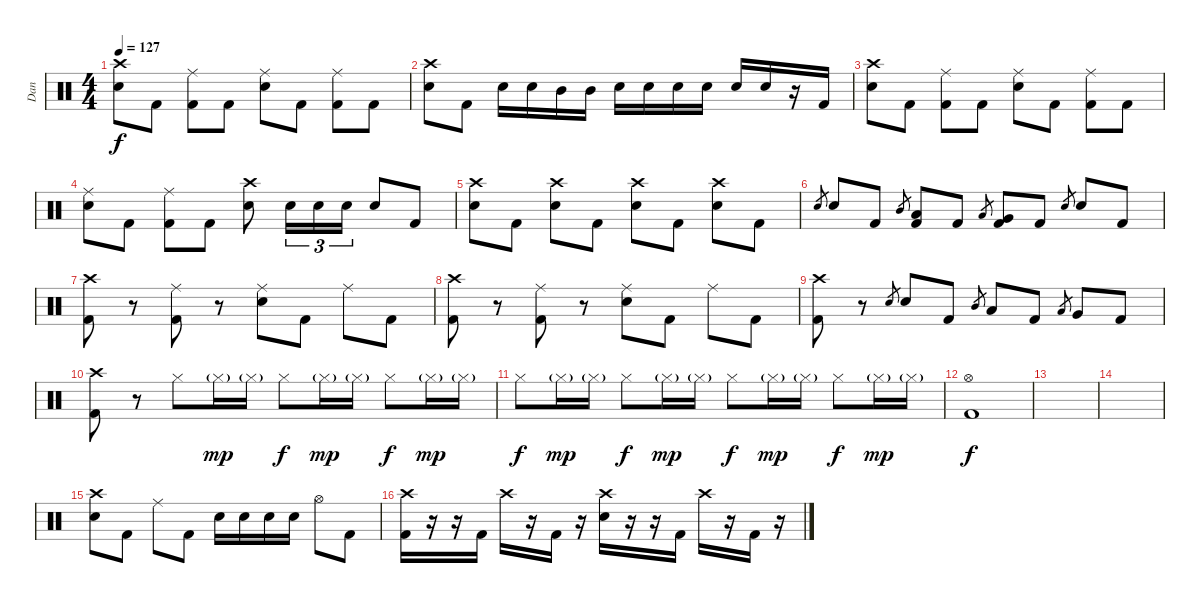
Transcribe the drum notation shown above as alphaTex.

\track ("Dan" "Dan") {instrument percussion}
\staff {score}
\articulation defaults
\ts (4 4)
\tempo 127
\clef neutral
\ks c
("Crash high (hit)" "Electric Snare (hit)").8{dy f} "Kick (hit) 2".8 ("Ride (middle)" "Kick (hit) 2").8 "Kick (hit) 2".8 ("Ride (middle)" "Electric Snare (hit)").8 "Kick (hit) 2".8 ("Ride (middle)" "Kick (hit) 2").8 "Kick (hit) 2".8 |
("Crash high (hit)" "Electric Snare (hit)").8 "Kick (hit) 2".8 "Electric Snare (hit)".16 "Electric Snare (hit)".16 "Mid Tom (hit)".16 "Mid Tom (hit)".16 "Electric Snare (hit)".16 "Electric Snare (hit)".16 "Electric Snare (hit)".16 "Electric Snare (hit)".16 "Electric Snare (hit)".16 "Electric Snare (hit)".16 r.16 "Kick (hit) 2".16 |
("Crash high (hit)" "Electric Snare (hit)").8 "Kick (hit) 2".8 ("Ride (middle)" "Kick (hit) 2").8 "Kick (hit) 2".8 ("Ride (middle)" "Electric Snare (hit)").8 "Kick (hit) 2".8 ("Ride (middle)" "Kick (hit) 2").8 "Kick (hit) 2".8 |
("Ride (middle)" "Electric Snare (hit)").8 "Kick (hit) 2".8 ("Ride (middle)" "Kick (hit) 2").8 "Kick (hit) 2".8 ("Crash high (hit)" "Electric Snare (hit)").8 "Electric Snare (hit)".16{tu (3 2)} "Electric Snare (hit)".16{tu (3 2)} "Electric Snare (hit)".16{tu (3 2)} "Electric Snare (hit)".8 "Kick (hit) 2".8 |
("Crash high (hit)" "Electric Snare (hit)").8 "Kick (hit) 2".8 ("Crash high (hit)" "Electric Snare (hit)").8 "Kick (hit) 2".8 ("Crash high (hit)" "Electric Snare (hit)").8 "Kick (hit) 2".8 ("Crash high (hit)" "Electric Snare (hit)").8 "Kick (hit) 2".8 |
"Electric Snare (hit)".8{gr} "Electric Snare (hit)".8 "Kick (hit) 2".8 "Mid Tom (hit)".8{gr} ("Low Tom (hit)" "Kick (hit) 2").8 "Kick (hit) 2".8 "Low Tom (hit)".8{gr} ("Very Low Tom (hit)" "Kick (hit) 2").8 "Kick (hit) 2".8 "Electric Snare (hit)".8{gr} "Electric Snare (hit)".8 "Kick (hit) 2".8 |
("Crash high (hit)" "Kick (hit) 2").8 r.8 ("Ride (middle)" "Kick (hit) 2").8 r.8 ("Ride (middle)" "Electric Snare (hit)").8 "Kick (hit) 2".8 "Ride (middle)".8 "Kick (hit) 2".8 |
("Crash high (hit)" "Kick (hit) 2").8 r.8 ("Ride (middle)" "Kick (hit) 2").8 r.8 ("Ride (middle)" "Electric Snare (hit)").8 "Kick (hit) 2".8 "Ride (middle)".8 "Kick (hit) 2".8 |
("Crash high (hit)" "Kick (hit) 2").8 r.8 "Electric Snare (hit)".8{gr} "Electric Snare (hit)".8 "Kick (hit) 2".8 "Mid Tom (hit)".8{gr} "Low Tom (hit)".8 "Kick (hit) 2".8 "Low Tom (hit)".8{gr} "Very Low Tom (hit)".8 "Kick (hit) 2".8 |
("Crash high (hit)" "Kick (hit) 2").8 r.8 "Hi-Hat (closed)".8 "Hi-Hat (closed)"{g}.16{dy mp} "Hi-Hat (closed)"{g}.16 "Hi-Hat (closed)".8{dy f} "Hi-Hat (closed)"{g}.16{dy mp} "Hi-Hat (closed)"{g}.16 "Hi-Hat (closed)".8{dy f} "Hi-Hat (closed)"{g}.16{dy mp} "Hi-Hat (closed)"{g}.16 |
"Hi-Hat (closed)".8{dy f} "Hi-Hat (closed)"{g}.16{dy mp} "Hi-Hat (closed)"{g}.16 "Hi-Hat (closed)".8{dy f} "Hi-Hat (closed)"{g}.16{dy mp} "Hi-Hat (closed)"{g}.16 "Hi-Hat (closed)".8{dy f} "Hi-Hat (closed)"{g}.16{dy mp} "Hi-Hat (closed)"{g}.16 "Hi-Hat (closed)".8{dy f} "Hi-Hat (closed)"{g}.16{dy mp} "Hi-Hat (closed)"{g}.16 |
("Hi-Hat (open)" "Kick (hit) 2").1{dy f} |
|
|
("Crash high (hit)" "Electric Snare (hit)").8 "Kick (hit) 2".8 "Ride (middle)".8 "Kick (hit) 2".8 "Electric Snare (hit)".16 "Electric Snare (hit)".16 "Electric Snare (hit)".16 "Electric Snare (hit)".16 "Hi-Hat (open)".8 "Kick (hit) 2".8 |
("Crash high (hit)" "Kick (hit) 2").16 r.16 r.16 "Kick (hit) 2".16 "Crash high (hit)".16 r.16 "Kick (hit) 2".16 r.16 ("Crash high (hit)" "Electric Snare (hit)").16 r.16 r.16 "Kick (hit) 2".16 "Crash high (hit)".16 r.16 "Kick (hit) 2".16 r.16
